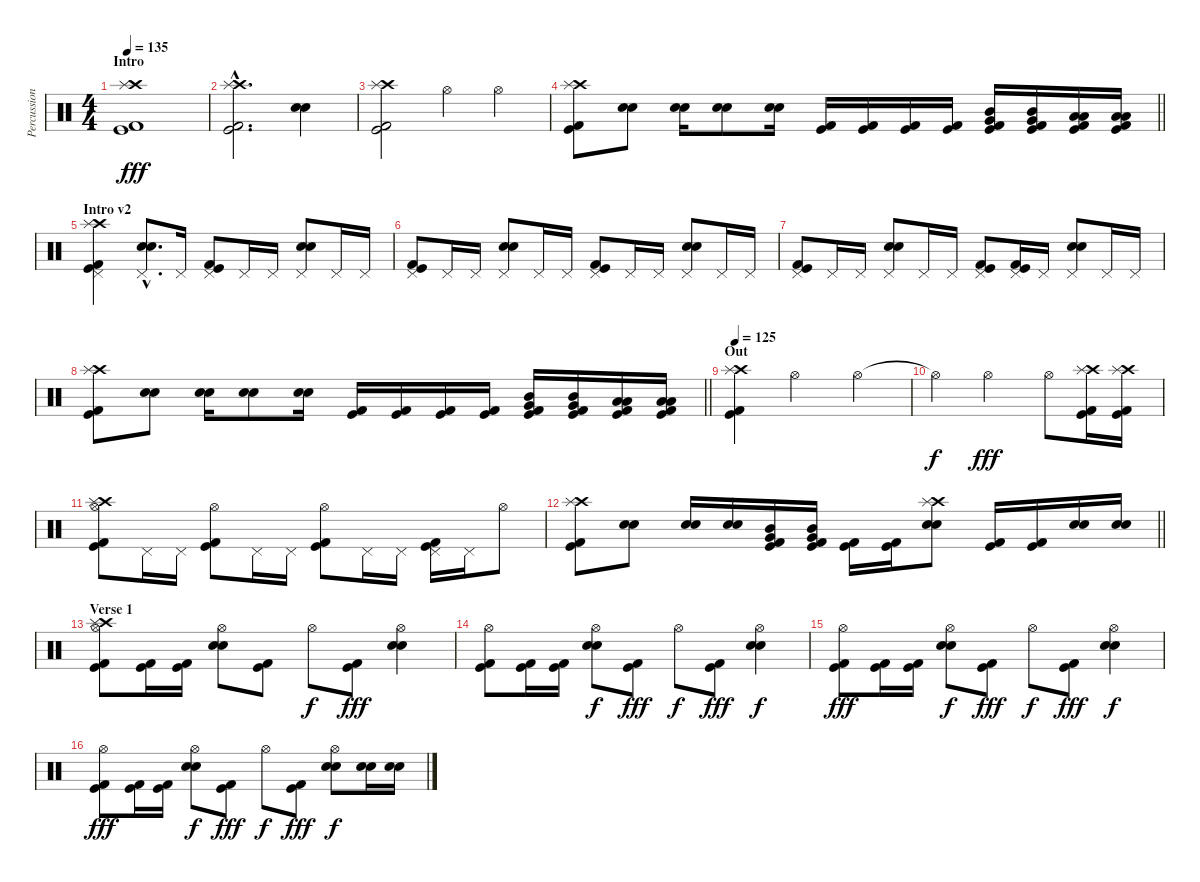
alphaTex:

\track ("Percussion" "Percussion") {instrument percussion}
\staff {score}
\articulation defaults
\ts (4 4)
\section ("" "Intro")
\tempo 135
\clef neutral
\ks c
("Crash high (hit)" "Splash (hit)" "Kick (hit)" "Kick (hit) 2").1{dy fff} |
("Crash high (hit)"{hac} "Splash (hit)"{hac} "Kick (hit)"{hac} "Kick (hit) 2"{hac}).2{d} ("Electric Snare (hit)" "Snare (hit) 2").4 |
("Crash high (hit)" "Splash (hit)" "Kick (hit)" "Kick (hit) 2").2 "Hi-Hat (open)".4 "Hi-Hat (open)".4 |
\barLineRight lightlight
("Crash high (hit)" "Splash (hit)" "Kick (hit)" "Kick (hit) 2").8 ("Electric Snare (hit)" "Snare (hit) 2").8 ("Electric Snare (hit)" "Snare (hit) 2").16 ("Electric Snare (hit)" "Snare (hit) 2").8 ("Electric Snare (hit)" "Snare (hit) 2").16 ("Kick (hit)" "Kick (hit) 2").16 ("Kick (hit)" "Kick (hit) 2").16 ("Kick (hit)" "Kick (hit) 2").16 ("Kick (hit)" "Kick (hit) 2").16 ("Very Low Tom (hit)" "Mid Tom (hit)" "Kick (hit)" "Kick (hit) 2").16 ("Very Low Tom (hit)" "Mid Tom (hit)" "Kick (hit)" "Kick (hit) 2").16 ("Low Floor Tom (hit)" "Low Tom (hit)" "Kick (hit)" "Kick (hit) 2").16 ("Low Floor Tom (hit)" "Low Tom (hit)" "Kick (hit)" "Kick (hit) 2").16 |
\section ("" "Intro v2")
("Crash high (hit)" "Splash (hit)" "Pedal Hi-Hat (hit)" "Kick (hit)" "Kick (hit) 2").4 ("Electric Snare (hit)"{hac} "Snare (hit) 2"{hac} "Pedal Hi-Hat (hit)"{hac}).8{d} "Pedal Hi-Hat (hit)".16 ("Pedal Hi-Hat (hit)" "Kick (hit) 2" "Kick (hit)").8 "Pedal Hi-Hat (hit)".16 "Pedal Hi-Hat (hit)".16 ("Electric Snare (hit)" "Snare (hit) 2" "Pedal Hi-Hat (hit)").8 "Pedal Hi-Hat (hit)".16 "Pedal Hi-Hat (hit)".16 |
("Pedal Hi-Hat (hit)" "Kick (hit) 2" "Kick (hit)").8 "Pedal Hi-Hat (hit)".16 "Pedal Hi-Hat (hit)".16 ("Electric Snare (hit)" "Snare (hit) 2" "Pedal Hi-Hat (hit)").8 "Pedal Hi-Hat (hit)".16 "Pedal Hi-Hat (hit)".16 ("Pedal Hi-Hat (hit)" "Kick (hit) 2" "Kick (hit)").8 "Pedal Hi-Hat (hit)".16 "Pedal Hi-Hat (hit)".16 ("Electric Snare (hit)" "Snare (hit) 2" "Pedal Hi-Hat (hit)").8 "Pedal Hi-Hat (hit)".16 "Pedal Hi-Hat (hit)".16 |
("Pedal Hi-Hat (hit)" "Kick (hit) 2" "Kick (hit)").8 "Pedal Hi-Hat (hit)".16 "Pedal Hi-Hat (hit)".16 ("Electric Snare (hit)" "Snare (hit) 2" "Pedal Hi-Hat (hit)").8 "Pedal Hi-Hat (hit)".16 "Pedal Hi-Hat (hit)".16 ("Pedal Hi-Hat (hit)" "Kick (hit) 2" "Kick (hit)").8 ("Pedal Hi-Hat (hit)" "Kick (hit)" "Kick (hit) 2").16 "Pedal Hi-Hat (hit)".16 ("Electric Snare (hit)" "Snare (hit) 2" "Pedal Hi-Hat (hit)").8 "Pedal Hi-Hat (hit)".16 "Pedal Hi-Hat (hit)".16 |
\barLineRight lightlight
("Crash high (hit)" "Splash (hit)" "Kick (hit)" "Kick (hit) 2").8 ("Electric Snare (hit)" "Snare (hit) 2").8 ("Electric Snare (hit)" "Snare (hit) 2").16 ("Electric Snare (hit)" "Snare (hit) 2").8 ("Electric Snare (hit)" "Snare (hit) 2").16 ("Kick (hit)" "Kick (hit) 2").16 ("Kick (hit)" "Kick (hit) 2").16 ("Kick (hit)" "Kick (hit) 2").16 ("Kick (hit)" "Kick (hit) 2").16 ("Very Low Tom (hit)" "Mid Tom (hit)" "Kick (hit)" "Kick (hit) 2").16 ("Very Low Tom (hit)" "Mid Tom (hit)" "Kick (hit)" "Kick (hit) 2").16 ("Low Floor Tom (hit)" "Low Tom (hit)" "Kick (hit)" "Kick (hit) 2").16 ("Low Floor Tom (hit)" "Low Tom (hit)" "Kick (hit)" "Kick (hit) 2").16 |
\section ("" "Out")
\tempo 125
("Crash high (hit)" "Splash (hit)" "Kick (hit)" "Kick (hit) 2").4 "Hi-Hat (open)".2 "Hi-Hat (open)".4 |
"Hi-Hat (open)"{t}.4{dy f} "Hi-Hat (open)".2{dy fff} "Hi-Hat (open)".8 ("Crash high (hit)" "Splash (hit)" "Kick (hit)" "Kick (hit) 2").16 ("Crash high (hit)" "Splash (hit)" "Kick (hit)" "Kick (hit) 2").16 |
("Crash high (hit)" "Splash (hit)" "Hi-Hat (open)" "Kick (hit)" "Kick (hit) 2").8 "Pedal Hi-Hat (hit)".16 "Pedal Hi-Hat (hit)".16 ("Hi-Hat (open)" "Kick (hit)" "Kick (hit) 2").8 "Pedal Hi-Hat (hit)".16 "Pedal Hi-Hat (hit)".16 ("Hi-Hat (open)" "Kick (hit)" "Kick (hit) 2").8 "Pedal Hi-Hat (hit)".16 "Pedal Hi-Hat (hit)".16 ("Pedal Hi-Hat (hit)" "Kick (hit)" "Kick (hit) 2").16 "Pedal Hi-Hat (hit)".16 "Hi-Hat (open)".8 |
\barLineRight lightlight
("Crash high (hit)" "Splash (hit)" "Kick (hit)" "Kick (hit) 2").8 ("Electric Snare (hit)" "Snare (hit) 2").8 ("Electric Snare (hit)" "Snare (hit) 2").16 ("Electric Snare (hit)" "Snare (hit) 2").16 ("Mid Tom (hit)" "Very Low Tom (hit)" "Kick (hit)" "Kick (hit) 2").16 ("Mid Tom (hit)" "Very Low Tom (hit)" "Kick (hit)" "Kick (hit) 2").16 ("Kick (hit)" "Kick (hit) 2").16 ("Kick (hit)" "Kick (hit) 2").16 ("Electric Snare (hit)" "Snare (hit) 2" "Crash high (hit)" "Splash (hit)").8 ("Kick (hit)" "Kick (hit) 2").16 ("Kick (hit)" "Kick (hit) 2").16 ("Electric Snare (hit)" "Snare (hit) 2").16 ("Electric Snare (hit)" "Snare (hit) 2").16 |
\section ("" "Verse 1")
("Crash high (hit)" "Splash (hit)" "Hi-Hat (open)" "Kick (hit)" "Kick (hit) 2").8 ("Kick (hit)" "Kick (hit) 2").16 ("Kick (hit)" "Kick (hit) 2").16 ("Electric Snare (hit)" "Snare (hit) 2" "Hi-Hat (open)").8 ("Kick (hit)" "Kick (hit) 2").8 "Hi-Hat (open)".8{dy f} ("Kick (hit)" "Kick (hit) 2").8{dy fff} ("Electric Snare (hit)" "Snare (hit) 2" "Hi-Hat (open)").4 |
("Hi-Hat (open)" "Kick (hit)" "Kick (hit) 2").8 ("Kick (hit)" "Kick (hit) 2").16 ("Kick (hit)" "Kick (hit) 2").16 ("Electric Snare (hit)" "Snare (hit) 2" "Hi-Hat (open)").8{dy f} ("Kick (hit)" "Kick (hit) 2").8{dy fff} "Hi-Hat (open)".8{dy f} ("Kick (hit)" "Kick (hit) 2").8{dy fff} ("Electric Snare (hit)" "Snare (hit) 2" "Hi-Hat (open)").4{dy f} |
("Hi-Hat (open)" "Kick (hit)" "Kick (hit) 2").8{dy fff} ("Kick (hit)" "Kick (hit) 2").16 ("Kick (hit)" "Kick (hit) 2").16 ("Electric Snare (hit)" "Snare (hit) 2" "Hi-Hat (open)").8{dy f} ("Kick (hit)" "Kick (hit) 2").8{dy fff} "Hi-Hat (open)".8{dy f} ("Kick (hit)" "Kick (hit) 2").8{dy fff} ("Electric Snare (hit)" "Snare (hit) 2" "Hi-Hat (open)").4{dy f} |
("Hi-Hat (open)" "Kick (hit)" "Kick (hit) 2").8{dy fff} ("Kick (hit)" "Kick (hit) 2").16 ("Kick (hit)" "Kick (hit) 2").16 ("Electric Snare (hit)" "Snare (hit) 2" "Hi-Hat (open)").8{dy f} ("Kick (hit)" "Kick (hit) 2").8{dy fff} "Hi-Hat (open)".8{dy f} ("Kick (hit)" "Kick (hit) 2").8{dy fff} ("Electric Snare (hit)" "Snare (hit) 2" "Hi-Hat (open)").8{dy f} ("Electric Snare (hit)" "Snare (hit) 2").16 ("Electric Snare (hit)" "Snare (hit) 2").16
